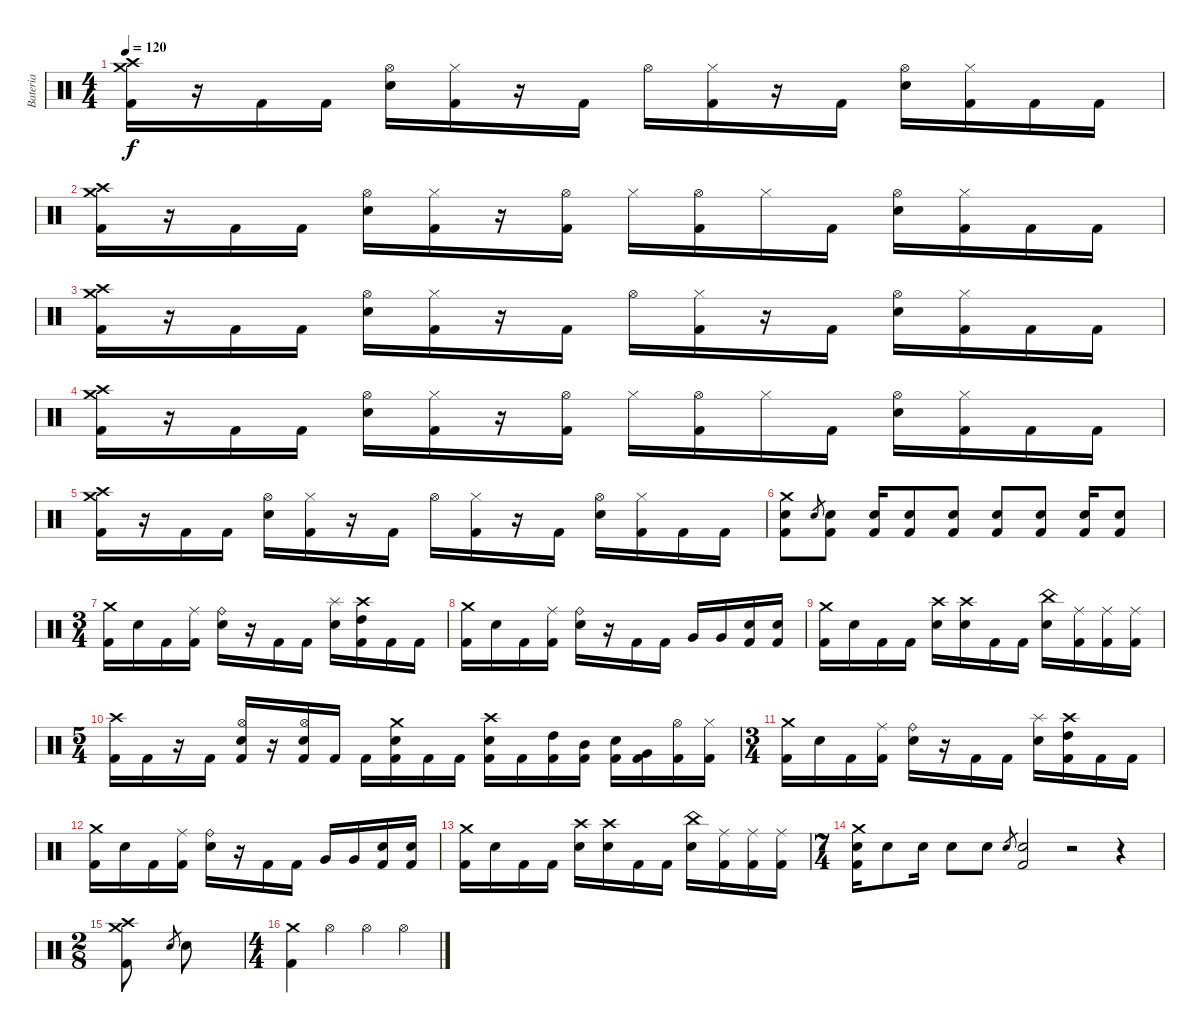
\track ("Bateria" "Bateria") {instrument percussion}
\staff {score}
\articulation defaults
\ts (4 4)
\tempo 120
\clef neutral
\ks c
("Crash medium (hit)" "Crash high (hit)" "Kick (hit) 2").16{dy f} r.16 "Kick (hit) 2".16 "Kick (hit) 2".16 ("Hi-Hat (open)" "Electric Snare (hit)").16 ("Hi-Hat (closed)" "Kick (hit) 2").16 r.16 "Kick (hit) 2".16 "Hi-Hat (open)".16 ("Hi-Hat (closed)" "Kick (hit) 2").16 r.16 "Kick (hit) 2".16 ("Hi-Hat (open)" "Electric Snare (hit)").16 ("Hi-Hat (closed)" "Kick (hit) 2").16 "Kick (hit) 2".16 "Kick (hit) 2".16 |
("Crash medium (hit)" "Crash high (hit)" "Kick (hit) 2").16 r.16 "Kick (hit) 2".16 "Kick (hit) 2".16 ("Hi-Hat (open)" "Electric Snare (hit)").16 ("Hi-Hat (closed)" "Kick (hit) 2").16 r.16 ("Hi-Hat (open)" "Kick (hit) 2").16 "Hi-Hat (closed)".16 ("Hi-Hat (open)" "Kick (hit) 2").16 "Hi-Hat (closed)".16 "Kick (hit) 2".16 ("Hi-Hat (open)" "Electric Snare (hit)").16 ("Hi-Hat (closed)" "Kick (hit) 2").16 "Kick (hit) 2".16 "Kick (hit) 2".16 |
("Crash medium (hit)" "Crash high (hit)" "Kick (hit) 2").16 r.16 "Kick (hit) 2".16 "Kick (hit) 2".16 ("Hi-Hat (open)" "Electric Snare (hit)").16 ("Hi-Hat (closed)" "Kick (hit) 2").16 r.16 "Kick (hit) 2".16 "Hi-Hat (open)".16 ("Hi-Hat (closed)" "Kick (hit) 2").16 r.16 "Kick (hit) 2".16 ("Hi-Hat (open)" "Electric Snare (hit)").16 ("Hi-Hat (closed)" "Kick (hit) 2").16 "Kick (hit) 2".16 "Kick (hit) 2".16 |
("Crash medium (hit)" "Crash high (hit)" "Kick (hit) 2").16 r.16 "Kick (hit) 2".16 "Kick (hit) 2".16 ("Hi-Hat (open)" "Electric Snare (hit)").16 ("Hi-Hat (closed)" "Kick (hit) 2").16 r.16 ("Hi-Hat (open)" "Kick (hit) 2").16 "Hi-Hat (closed)".16 ("Hi-Hat (open)" "Kick (hit) 2").16 "Hi-Hat (closed)".16 "Kick (hit) 2".16 ("Hi-Hat (open)" "Electric Snare (hit)").16 ("Hi-Hat (closed)" "Kick (hit) 2").16 "Kick (hit) 2".16 "Kick (hit) 2".16 |
("Crash medium (hit)" "Crash high (hit)" "Kick (hit) 2").16 r.16 "Kick (hit) 2".16 "Kick (hit) 2".16 ("Hi-Hat (open)" "Electric Snare (hit)").16 ("Hi-Hat (closed)" "Kick (hit) 2").16 r.16 "Kick (hit) 2".16 "Hi-Hat (open)".16 ("Hi-Hat (closed)" "Kick (hit) 2").16 r.16 "Kick (hit) 2".16 ("Hi-Hat (open)" "Electric Snare (hit)").16 ("Hi-Hat (closed)" "Kick (hit) 2").16 "Kick (hit) 2".16 "Kick (hit) 2".16 |
("Crash medium (hit)" "Electric Snare (hit)" "Kick (hit) 2").8 "Electric Snare (hit)".8{gr} ("Electric Snare (hit)" "Kick (hit) 2").8 ("Electric Snare (hit)" "Kick (hit) 2").16 ("Electric Snare (hit)" "Kick (hit) 2").8 ("Electric Snare (hit)" "Kick (hit) 2").8 ("Electric Snare (hit)" "Kick (hit) 2").8 ("Electric Snare (hit)" "Kick (hit) 2").8 ("Electric Snare (hit)" "Kick (hit) 2").16 ("Electric Snare (hit)" "Kick (hit) 2").8 |
\ts (3 4)
("Crash medium (hit)" "Kick (hit) 2").16 "Electric Snare (hit)".16 "Kick (hit) 2".16 ("Ride (middle)" "Kick (hit) 2").16 ("Ride (bell)" "Electric Snare (hit)").16 r.16 "Kick (hit) 2".16 "Kick (hit) 2".16 ("Splash (hit)" "Electric Snare (hit)").16 ("Crash high (hit)" "High Tom (hit)" "Kick (hit) 2").16 "Kick (hit) 2".16 "Kick (hit) 2".16 |
("Crash medium (hit)" "Kick (hit) 2").16 "Electric Snare (hit)".16 "Kick (hit) 2".16 ("Ride (middle)" "Kick (hit) 2").16 ("Ride (bell)" "Electric Snare (hit)").16 r.16 "Kick (hit) 2".16 "Kick (hit) 2".16 "Very Low Tom (hit)".16 "Very Low Tom (hit)".16 ("Electric Snare (hit)" "Kick (hit) 2").16 ("Electric Snare (hit)" "Kick (hit) 2").16 |
("Crash medium (hit)" "Kick (hit) 2").16 "Electric Snare (hit)".16 "Kick (hit) 2".16 "Kick (hit) 2".16 ("Crash high (hit)" "Electric Snare (hit)").16 ("Crash high (hit)" "Electric Snare (hit)").16 "Kick (hit) 2".16 "Kick (hit) 2".16 ("China (hit)" "Electric Snare (hit)").16 ("Ride (middle)" "Kick (hit) 2").16 ("Ride (middle)" "Kick (hit) 2").16 ("Ride (middle)" "Kick (hit) 2").16 |
\ts (5 4)
("Crash high (hit)" "Kick (hit) 2").16 "Kick (hit) 2".16 r.16 "Kick (hit) 2".16 ("Hi-Hat (open)" "Electric Snare (hit)" "Kick (hit) 2").16 r.16 ("Hi-Hat (open)" "Electric Snare (hit)" "Kick (hit) 2").16 "Kick (hit) 2".16 "Kick (hit) 2".16 ("Crash medium (hit)" "Electric Snare (hit)" "Kick (hit) 2").16 "Kick (hit) 2".16 "Kick (hit) 2".16 ("Crash high (hit)" "Electric Snare (hit)" "Kick (hit) 2").16 "Kick (hit) 2".16 ("High Tom (hit)" "Kick (hit) 2").16 ("Mid Tom (hit)" "Kick (hit) 2").16 ("Electric Snare (hit)" "Kick (hit) 2").16 ("Very Low Tom (hit)" "Kick (hit) 2").16 ("Hi-Hat (open)" "Kick (hit) 2").16 ("Hi-Hat (closed)" "Kick (hit) 2").16 |
\ts (3 4)
("Crash medium (hit)" "Kick (hit) 2").16 "Electric Snare (hit)".16 "Kick (hit) 2".16 ("Ride (middle)" "Kick (hit) 2").16 ("Ride (bell)" "Electric Snare (hit)").16 r.16 "Kick (hit) 2".16 "Kick (hit) 2".16 ("Splash (hit)" "Electric Snare (hit)").16 ("Crash high (hit)" "High Tom (hit)" "Kick (hit) 2").16 "Kick (hit) 2".16 "Kick (hit) 2".16 |
("Crash medium (hit)" "Kick (hit) 2").16 "Electric Snare (hit)".16 "Kick (hit) 2".16 ("Ride (middle)" "Kick (hit) 2").16 ("Ride (bell)" "Electric Snare (hit)").16 r.16 "Kick (hit) 2".16 "Kick (hit) 2".16 "Very Low Tom (hit)".16 "Very Low Tom (hit)".16 ("Electric Snare (hit)" "Kick (hit) 2").16 ("Electric Snare (hit)" "Kick (hit) 2").16 |
("Crash medium (hit)" "Kick (hit) 2").16 "Electric Snare (hit)".16 "Kick (hit) 2".16 "Kick (hit) 2".16 ("Crash high (hit)" "Electric Snare (hit)").16 ("Crash high (hit)" "Electric Snare (hit)").16 "Kick (hit) 2".16 "Kick (hit) 2".16 ("China (hit)" "Electric Snare (hit)").16 ("Ride (middle)" "Kick (hit) 2").16 ("Ride (middle)" "Kick (hit) 2").16 ("Ride (middle)" "Kick (hit) 2").16 |
\ts (7 4)
("Crash medium (hit)" "Electric Snare (hit)" "Kick (hit) 2").16 "Electric Snare (hit)".8 "Electric Snare (hit)".16 "Electric Snare (hit)".8 "Electric Snare (hit)".8 "Electric Snare (hit)".8{gr} ("Electric Snare (hit)" "Kick (hit) 2").2 r.2 r.4 |
\ts (2 8)
("Crash medium (hit)" "Crash high (hit)" "Kick (hit) 2").8 "Electric Snare (hit)".8{gr} "Electric Snare (hit)".8 |
\ts (4 4)
("Crash medium (hit)" "Kick (hit) 2").4 "Hi-Hat (open)".4 "Hi-Hat (open)".4 "Hi-Hat (open)".4
